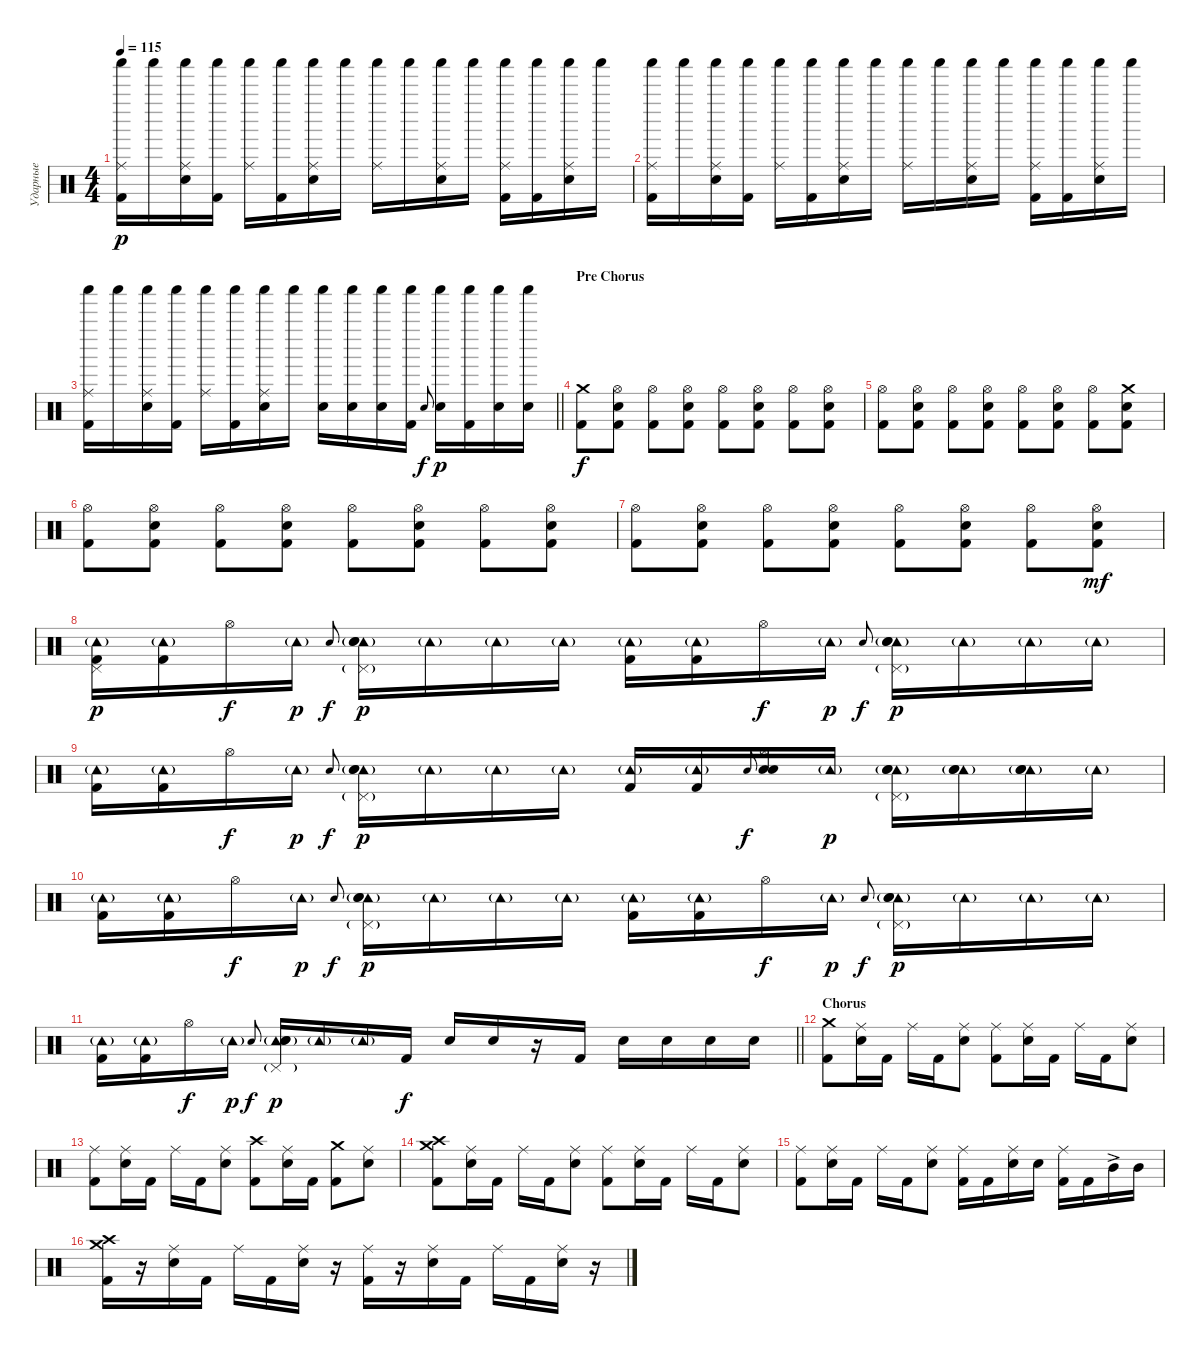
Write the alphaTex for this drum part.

\track ("Ударные" "Ударные") {instrument percussion}
\staff {score}
\articulation defaults
\ts (4 4)
\tempo 115
\clef neutral
\ks c
("Shaker (hit)" "Ride (middle)" "Kick (hit) 2").16{dy p} "Shaker (hit)".16 ("Shaker (hit)" "Ride (middle)" "Snare (hit) 2").16 ("Shaker (hit)" "Kick (hit) 2").16 ("Shaker (hit)" "Ride (middle)").16 ("Shaker (hit)" "Kick (hit) 2").16 ("Shaker (hit)" "Ride (middle)" "Snare (hit) 2").16 "Shaker (hit)".16 ("Shaker (hit)" "Ride (middle)").16 "Shaker (hit)".16 ("Shaker (hit)" "Ride (middle)" "Snare (hit) 2").16 "Shaker (hit)".16 ("Shaker (hit)" "Ride (middle)" "Kick (hit) 2").16 ("Shaker (hit)" "Kick (hit) 2").16 ("Shaker (hit)" "Ride (middle)" "Snare (hit) 2").16 "Shaker (hit)".16 |
("Shaker (hit)" "Ride (middle)" "Kick (hit) 2").16 "Shaker (hit)".16 ("Shaker (hit)" "Ride (middle)" "Snare (hit) 2").16 ("Shaker (hit)" "Kick (hit) 2").16 ("Shaker (hit)" "Ride (middle)").16 ("Shaker (hit)" "Kick (hit) 2").16 ("Shaker (hit)" "Ride (middle)" "Snare (hit) 2").16 "Shaker (hit)".16 ("Shaker (hit)" "Ride (middle)").16 "Shaker (hit)".16 ("Shaker (hit)" "Ride (middle)" "Snare (hit) 2").16 "Shaker (hit)".16 ("Shaker (hit)" "Ride (middle)" "Kick (hit) 2").16 ("Shaker (hit)" "Kick (hit) 2").16 ("Shaker (hit)" "Ride (middle)" "Snare (hit) 2").16 "Shaker (hit)".16 |
\barLineRight lightlight
("Shaker (hit)" "Ride (middle)" "Kick (hit) 2").16 "Shaker (hit)".16 ("Shaker (hit)" "Ride (middle)" "Snare (hit) 2").16 ("Shaker (hit)" "Kick (hit) 2").16 ("Shaker (hit)" "Ride (middle)").16 ("Shaker (hit)" "Kick (hit) 2").16 ("Shaker (hit)" "Ride (middle)" "Snare (hit) 2").16 "Shaker (hit)".16 ("Shaker (hit)" "Snare (hit) 2").16 ("Shaker (hit)" "Snare (hit) 2").16 ("Shaker (hit)" "Snare (hit) 2").16 ("Shaker (hit)" "Kick (hit) 2").16 "Snare (hit) 2".8{gr onbeat dy f} ("Shaker (hit)" "Snare (hit) 2").16{dy p} ("Shaker (hit)" "Kick (hit) 2").16 ("Shaker (hit)" "Snare (hit) 2").16 ("Shaker (hit)" "Snare (hit) 2").16 |
\section ("" "Pre Chorus")
("Crash medium (hit)" "Kick (hit) 2").8{dy f} ("Hi-Hat (open)" "Snare (hit) 2" "Kick (hit) 2").8 ("Hi-Hat (open)" "Kick (hit) 2").8 ("Hi-Hat (open)" "Snare (hit) 2" "Kick (hit) 2").8 ("Hi-Hat (open)" "Kick (hit) 2").8 ("Hi-Hat (open)" "Snare (hit) 2" "Kick (hit) 2").8 ("Hi-Hat (open)" "Kick (hit) 2").8 ("Hi-Hat (open)" "Snare (hit) 2" "Kick (hit) 2").8 |
("Hi-Hat (open)" "Kick (hit) 2").8 ("Hi-Hat (open)" "Snare (hit) 2" "Kick (hit) 2").8 ("Hi-Hat (open)" "Kick (hit) 2").8 ("Hi-Hat (open)" "Snare (hit) 2" "Kick (hit) 2").8 ("Hi-Hat (open)" "Kick (hit) 2").8 ("Hi-Hat (open)" "Snare (hit) 2" "Kick (hit) 2").8 ("Hi-Hat (open)" "Kick (hit) 2").8 ("Crash medium (hit)" "Snare (hit) 2" "Kick (hit) 2").8 |
("Hi-Hat (open)" "Kick (hit) 2").8 ("Hi-Hat (open)" "Snare (hit) 2" "Kick (hit) 2").8 ("Hi-Hat (open)" "Kick (hit) 2").8 ("Hi-Hat (open)" "Snare (hit) 2" "Kick (hit) 2").8 ("Hi-Hat (open)" "Kick (hit) 2").8 ("Hi-Hat (open)" "Snare (hit) 2" "Kick (hit) 2").8 ("Hi-Hat (open)" "Kick (hit) 2").8 ("Hi-Hat (open)" "Snare (hit) 2" "Kick (hit) 2").8 |
("Hi-Hat (open)" "Kick (hit) 2").8 ("Hi-Hat (open)" "Snare (hit) 2" "Kick (hit) 2").8 ("Hi-Hat (open)" "Kick (hit) 2").8 ("Hi-Hat (open)" "Snare (hit) 2" "Kick (hit) 2").8 ("Hi-Hat (open)" "Kick (hit) 2").8 ("Hi-Hat (open)" "Snare (hit) 2" "Kick (hit) 2").8 ("Hi-Hat (open)" "Kick (hit) 2").8 ("Hi-Hat (open)" "Snare (hit) 2" "Kick (hit) 2").8{dy mf} |
("Pedal Hi-Hat (hit)" "Tambourine (hit)"{g} "Kick (hit) 2").16{dy p} ("Tambourine (hit)"{g} "Kick (hit) 2").16 "Hi-Hat (open)".16{dy f} "Tambourine (hit)"{g}.16{dy p} "Snare (hit) 2".8{gr onbeat dy f} ("Pedal Hi-Hat (hit)"{g} "Tambourine (hit)"{g} "Hand Clap (hit)" "Snare (hit) 2").16{dy p} "Tambourine (hit)"{g}.16 "Tambourine (hit)"{g}.16 "Tambourine (hit)"{g}.16 ("Tambourine (hit)"{g} "Kick (hit) 2").16 ("Tambourine (hit)"{g} "Kick (hit) 2").16 "Hi-Hat (open)".16{dy f} "Tambourine (hit)"{g}.16{dy p} "Snare (hit) 2".8{gr onbeat dy f} ("Pedal Hi-Hat (hit)"{g} "Tambourine (hit)"{g} "Hand Clap (hit)" "Snare (hit) 2").16{dy p} "Tambourine (hit)"{g}.16 "Tambourine (hit)"{g}.16 "Tambourine (hit)"{g}.16 |
("Tambourine (hit)"{g} "Kick (hit) 2").16 ("Tambourine (hit)"{g} "Kick (hit) 2").16 "Hi-Hat (open)".16{dy f} "Tambourine (hit)"{g}.16{dy p} "Snare (hit) 2".8{gr onbeat dy f} ("Pedal Hi-Hat (hit)"{g} "Tambourine (hit)"{g} "Hand Clap (hit)" "Snare (hit) 2").16{dy p} "Tambourine (hit)"{g}.16 "Tambourine (hit)"{g}.16 "Tambourine (hit)"{g}.16 ("Tambourine (hit)"{g} "Kick (hit) 2").16 ("Tambourine (hit)"{g} "Kick (hit) 2").16 "Snare (hit) 2".8{gr onbeat dy f} ("Hi-Hat (open)" "Hand Clap (hit)" "Snare (hit) 2").16 "Tambourine (hit)"{g}.16{dy p} ("Pedal Hi-Hat (hit)"{g} "Tambourine (hit)"{g} "Hand Clap (hit)" "Snare (hit) 2").16 ("Tambourine (hit)"{g} "Hand Clap (hit)" "Snare (hit) 2").16 ("Tambourine (hit)"{g} "Hand Clap (hit)" "Snare (hit) 2").16 "Tambourine (hit)"{g}.16 |
("Tambourine (hit)"{g} "Kick (hit) 2").16 ("Tambourine (hit)"{g} "Kick (hit) 2").16 "Hi-Hat (open)".16{dy f} "Tambourine (hit)"{g}.16{dy p} "Snare (hit) 2".8{gr onbeat dy f} ("Pedal Hi-Hat (hit)"{g} "Tambourine (hit)"{g} "Hand Clap (hit)" "Snare (hit) 2").16{dy p} "Tambourine (hit)"{g}.16 "Tambourine (hit)"{g}.16 "Tambourine (hit)"{g}.16 ("Tambourine (hit)"{g} "Kick (hit) 2").16 ("Tambourine (hit)"{g} "Kick (hit) 2").16 "Hi-Hat (open)".16{dy f} "Tambourine (hit)"{g}.16{dy p} "Snare (hit) 2".8{gr onbeat dy f} ("Pedal Hi-Hat (hit)"{g} "Tambourine (hit)"{g} "Hand Clap (hit)" "Snare (hit) 2").16{dy p} "Tambourine (hit)"{g}.16 "Tambourine (hit)"{g}.16 "Tambourine (hit)"{g}.16 |
\barLineRight lightlight
("Tambourine (hit)"{g} "Kick (hit) 2").16 ("Tambourine (hit)"{g} "Kick (hit) 2").16 "Hi-Hat (open)".16{dy f} "Tambourine (hit)"{g}.16{dy p} "Snare (hit) 2".8{gr onbeat dy f} ("Pedal Hi-Hat (hit)"{g} "Tambourine (hit)"{g} "Hand Clap (hit)" "Snare (hit) 2").16{dy p} "Tambourine (hit)"{g}.16 "Tambourine (hit)"{g}.16 "Kick (hit) 2".16{dy f} "Snare (hit) 2".16 "Snare (hit) 2".16 r.16 "Kick (hit) 2".16 "Snare (hit) 2".16 "Snare (hit) 2".16 "Snare (hit) 2".16 "Snare (hit) 2".16 |
\section ("" "Chorus")
("Crash medium (hit)" "Kick (hit) 2").8 ("Ride (middle)" "Snare (hit) 2").16 "Kick (hit) 2".16 "Ride (middle)".16 "Kick (hit) 2".16 ("Ride (middle)" "Snare (hit) 2").8 ("Ride (middle)" "Kick (hit) 2").8 ("Ride (middle)" "Snare (hit) 2").16 "Kick (hit) 2".16 "Ride (middle)".16 "Kick (hit) 2".16 ("Ride (middle)" "Snare (hit) 2").8 |
("Ride (middle)" "Kick (hit) 2").8 ("Ride (middle)" "Snare (hit) 2").16 "Kick (hit) 2".16 "Ride (middle)".16 "Kick (hit) 2".16 ("Ride (middle)" "Snare (hit) 2").8 ("Crash high (hit)" "Kick (hit) 2").8 ("Ride (middle)" "Snare (hit) 2").16 "Kick (hit) 2".16 ("Crash medium (hit)" "Kick (hit) 2").8 ("Ride (middle)" "Snare (hit) 2").8 |
("Crash medium (hit)" "Crash high (hit)" "Kick (hit) 2").8 ("Ride (middle)" "Snare (hit) 2").16 "Kick (hit) 2".16 "Ride (middle)".16 "Kick (hit) 2".16 ("Ride (middle)" "Snare (hit) 2").8 ("Ride (middle)" "Kick (hit) 2").8 ("Ride (middle)" "Snare (hit) 2").16 "Kick (hit) 2".16 "Ride (middle)".16 "Kick (hit) 2".16 ("Ride (middle)" "Snare (hit) 2").8 |
("Ride (middle)" "Kick (hit) 2").8 ("Ride (middle)" "Snare (hit) 2").16 "Kick (hit) 2".16 "Ride (middle)".16 "Kick (hit) 2".16 ("Ride (middle)" "Snare (hit) 2").8 ("Ride (middle)" "Kick (hit) 2").16 "Kick (hit) 2".16 ("Ride (middle)" "Snare (hit) 2").16 "Snare (hit) 2".16 ("Ride (middle)" "Kick (hit) 2").16 "Kick (hit) 2".16 "Mid Tom (hit)"{ac}.16 "Mid Tom (hit)".16 |
("Crash high (hit)" "Crash medium (hit)" "Kick (hit) 2").16 r.16 ("Ride (middle)" "Snare (hit) 2").16 "Kick (hit) 2".16 "Ride (middle)".16 "Kick (hit) 2".16 ("Ride (middle)" "Snare (hit) 2").16 r.16 ("Ride (middle)" "Kick (hit) 2").16 r.16 ("Ride (middle)" "Snare (hit) 2").16 "Kick (hit) 2".16 "Ride (middle)".16 "Kick (hit) 2".16 ("Ride (middle)" "Snare (hit) 2").16 r.16
